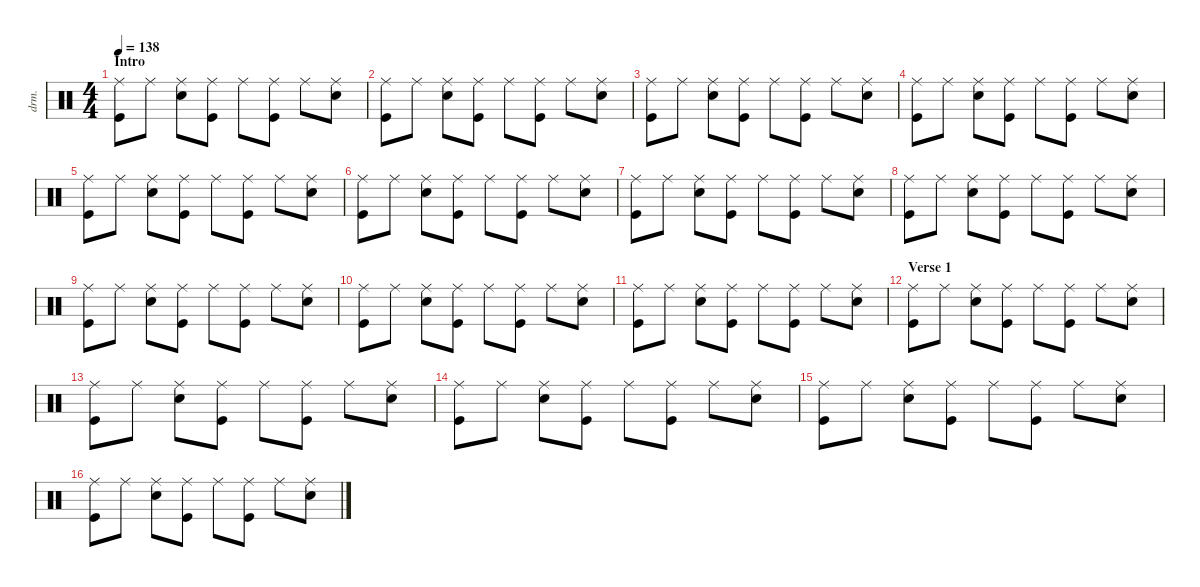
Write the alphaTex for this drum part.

\defaultSystemsLayout 4
\hideDynamics
\bracketExtendMode nobrackets
\otherSystemsTrackNameOrientation horizontal
\track ("Drums" "drm.") {instrument percussion}
\staff {score}
\articulation defaults
\ts (4 4)
\section ("" "Intro")
\tempo 138
\clef neutral
\ks c
("Ride (middle)" "Kick (hit)").8{dy f beam Down} "Ride (middle)".8{beam Down} ("Ride (middle)" "Snare (hit) 2").8{beam Down} ("Ride (middle)" "Kick (hit)").8{beam Down} "Ride (middle)".8{beam Down} ("Ride (middle)" "Kick (hit)").8{beam Down} "Ride (middle)".8{beam Down} ("Ride (middle)" "Snare (hit) 2").8{beam Down} |
("Ride (middle)" "Kick (hit)").8{beam Down} "Ride (middle)".8{beam Down} ("Ride (middle)" "Snare (hit) 2").8{beam Down} ("Ride (middle)" "Kick (hit)").8{beam Down} "Ride (middle)".8{beam Down} ("Ride (middle)" "Kick (hit)").8{beam Down} "Ride (middle)".8{beam Down} ("Ride (middle)" "Snare (hit) 2").8{beam Down} |
("Ride (middle)" "Kick (hit)").8{beam Down} "Ride (middle)".8{beam Down} ("Ride (middle)" "Snare (hit) 2").8{beam Down} ("Ride (middle)" "Kick (hit)").8{beam Down} "Ride (middle)".8{beam Down} ("Ride (middle)" "Kick (hit)").8{beam Down} "Ride (middle)".8{beam Down} ("Ride (middle)" "Snare (hit) 2").8{beam Down} |
("Ride (middle)" "Kick (hit)").8{beam Down} "Ride (middle)".8{beam Down} ("Ride (middle)" "Snare (hit) 2").8{beam Down} ("Ride (middle)" "Kick (hit)").8{beam Down} "Ride (middle)".8{beam Down} ("Ride (middle)" "Kick (hit)").8{beam Down} "Ride (middle)".8{beam Down} ("Ride (middle)" "Snare (hit) 2").8{beam Down} |
("Ride (middle)" "Kick (hit)").8{beam Down} "Ride (middle)".8{beam Down} ("Ride (middle)" "Snare (hit) 2").8{beam Down} ("Ride (middle)" "Kick (hit)").8{beam Down} "Ride (middle)".8{beam Down} ("Ride (middle)" "Kick (hit)").8{beam Down} "Ride (middle)".8{beam Down} ("Ride (middle)" "Snare (hit) 2").8{beam Down} |
("Ride (middle)" "Kick (hit)").8{beam Down} "Ride (middle)".8{beam Down} ("Ride (middle)" "Snare (hit) 2").8{beam Down} ("Ride (middle)" "Kick (hit)").8{beam Down} "Ride (middle)".8{beam Down} ("Ride (middle)" "Kick (hit)").8{beam Down} "Ride (middle)".8{beam Down} ("Ride (middle)" "Snare (hit) 2").8{beam Down} |
("Ride (middle)" "Kick (hit)").8{beam Down} "Ride (middle)".8{beam Down} ("Ride (middle)" "Snare (hit) 2").8{beam Down} ("Ride (middle)" "Kick (hit)").8{beam Down} "Ride (middle)".8{beam Down} ("Ride (middle)" "Kick (hit)").8{beam Down} "Ride (middle)".8{beam Down} ("Ride (middle)" "Snare (hit) 2").8{beam Down} |
("Ride (middle)" "Kick (hit)").8{beam Down} "Ride (middle)".8{beam Down} ("Ride (middle)" "Snare (hit) 2").8{beam Down} ("Ride (middle)" "Kick (hit)").8{beam Down} "Ride (middle)".8{beam Down} ("Ride (middle)" "Kick (hit)").8{beam Down} "Ride (middle)".8{beam Down} ("Ride (middle)" "Snare (hit) 2").8{beam Down} |
("Ride (middle)" "Kick (hit)").8{beam Down} "Ride (middle)".8{beam Down} ("Ride (middle)" "Snare (hit) 2").8{beam Down} ("Ride (middle)" "Kick (hit)").8{beam Down} "Ride (middle)".8{beam Down} ("Ride (middle)" "Kick (hit)").8{beam Down} "Ride (middle)".8{beam Down} ("Ride (middle)" "Snare (hit) 2").8{beam Down} |
("Ride (middle)" "Kick (hit)").8{beam Down} "Ride (middle)".8{beam Down} ("Ride (middle)" "Snare (hit) 2").8{beam Down} ("Ride (middle)" "Kick (hit)").8{beam Down} "Ride (middle)".8{beam Down} ("Ride (middle)" "Kick (hit)").8{beam Down} "Ride (middle)".8{beam Down} ("Ride (middle)" "Snare (hit) 2").8{beam Down} |
("Ride (middle)" "Kick (hit)").8{beam Down} "Ride (middle)".8{beam Down} ("Ride (middle)" "Snare (hit) 2").8{beam Down} ("Ride (middle)" "Kick (hit)").8{beam Down} "Ride (middle)".8{beam Down} ("Ride (middle)" "Kick (hit)").8{beam Down} "Ride (middle)".8{beam Down} ("Ride (middle)" "Snare (hit) 2").8{beam Down} |
\section ("" "Verse 1")
("Ride (middle)" "Kick (hit)").8{beam Down} "Ride (middle)".8{beam Down} ("Ride (middle)" "Snare (hit) 2").8{beam Down} ("Ride (middle)" "Kick (hit)").8{beam Down} "Ride (middle)".8{beam Down} ("Ride (middle)" "Kick (hit)").8{beam Down} "Ride (middle)".8{beam Down} ("Ride (middle)" "Snare (hit) 2").8{beam Down} |
("Ride (middle)" "Kick (hit)").8{beam Down} "Ride (middle)".8{beam Down} ("Ride (middle)" "Snare (hit) 2").8{beam Down} ("Ride (middle)" "Kick (hit)").8{beam Down} "Ride (middle)".8{beam Down} ("Ride (middle)" "Kick (hit)").8{beam Down} "Ride (middle)".8{beam Down} ("Ride (middle)" "Snare (hit) 2").8{beam Down} |
("Ride (middle)" "Kick (hit)").8{beam Down} "Ride (middle)".8{beam Down} ("Ride (middle)" "Snare (hit) 2").8{beam Down} ("Ride (middle)" "Kick (hit)").8{beam Down} "Ride (middle)".8{beam Down} ("Ride (middle)" "Kick (hit)").8{beam Down} "Ride (middle)".8{beam Down} ("Ride (middle)" "Snare (hit) 2").8{beam Down} |
("Ride (middle)" "Kick (hit)").8{beam Down} "Ride (middle)".8{beam Down} ("Ride (middle)" "Snare (hit) 2").8{beam Down} ("Ride (middle)" "Kick (hit)").8{beam Down} "Ride (middle)".8{beam Down} ("Ride (middle)" "Kick (hit)").8{beam Down} "Ride (middle)".8{beam Down} ("Ride (middle)" "Snare (hit) 2").8{beam Down} |
("Ride (middle)" "Kick (hit)").8{beam Down} "Ride (middle)".8{beam Down} ("Ride (middle)" "Snare (hit) 2").8{beam Down} ("Ride (middle)" "Kick (hit)").8{beam Down} "Ride (middle)".8{beam Down} ("Ride (middle)" "Kick (hit)").8{beam Down} "Ride (middle)".8{beam Down} ("Ride (middle)" "Snare (hit) 2").8{beam Down}
